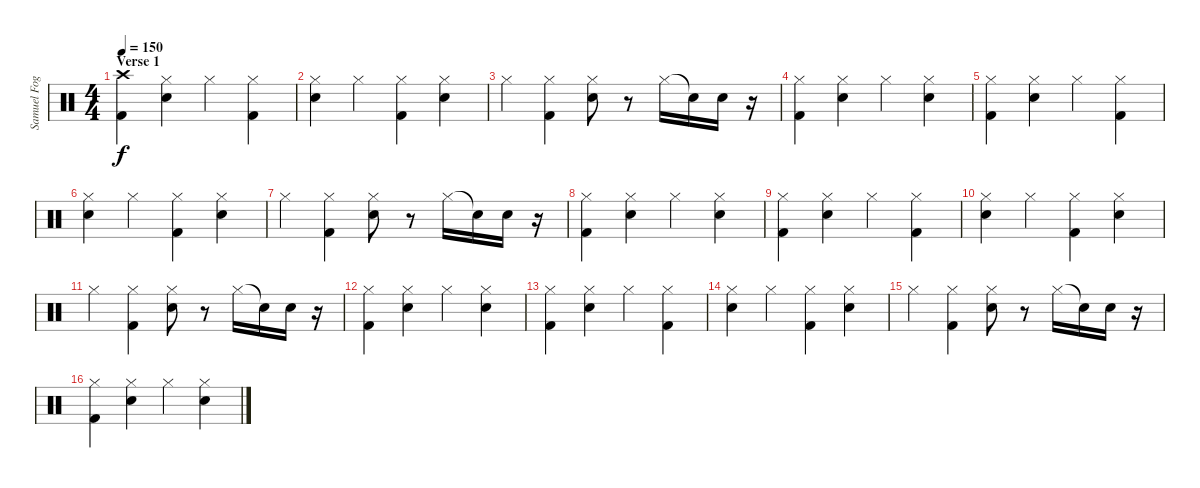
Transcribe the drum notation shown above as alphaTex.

\track ("Samuel Fogarino" "Samuel Fog") {instrument percussion}
\staff {score}
\articulation defaults
\ts (4 4)
\section ("" "Verse 1")
\tempo 150
\clef neutral
\ks c
("Crash high (hit)" "Kick (hit) 2").4{dy f} ("Electric Snare (hit)" "Hi-Hat (closed)").4 "Hi-Hat (closed)".4 ("Kick (hit) 2" "Hi-Hat (closed)").4 |
("Electric Snare (hit)" "Hi-Hat (closed)").4 "Hi-Hat (closed)".4 ("Kick (hit) 2" "Hi-Hat (closed)").4 ("Electric Snare (hit)" "Hi-Hat (closed)").4 |
"Hi-Hat (closed)".4 ("Kick (hit) 2" "Hi-Hat (closed)").4 ("Electric Snare (hit)" "Hi-Hat (closed)").8 r.8 "Hi-Hat (closed)".16 "Snare (hit)"{t}.16 "Electric Snare (hit)".16 r.16 |
("Hi-Hat (closed)" "Kick (hit) 2").4 ("Electric Snare (hit)" "Hi-Hat (closed)").4 "Hi-Hat (closed)".4 ("Electric Snare (hit)" "Hi-Hat (closed)").4 |
("Hi-Hat (closed)" "Kick (hit) 2").4 ("Electric Snare (hit)" "Hi-Hat (closed)").4 "Hi-Hat (closed)".4 ("Kick (hit) 2" "Hi-Hat (closed)").4 |
("Electric Snare (hit)" "Hi-Hat (closed)").4 "Hi-Hat (closed)".4 ("Kick (hit) 2" "Hi-Hat (closed)").4 ("Electric Snare (hit)" "Hi-Hat (closed)").4 |
"Hi-Hat (closed)".4 ("Kick (hit) 2" "Hi-Hat (closed)").4 ("Electric Snare (hit)" "Hi-Hat (closed)").8 r.8 "Hi-Hat (closed)".16 "Snare (hit)"{t}.16 "Electric Snare (hit)".16 r.16 |
("Hi-Hat (closed)" "Kick (hit) 2").4 ("Electric Snare (hit)" "Hi-Hat (closed)").4 "Hi-Hat (closed)".4 ("Electric Snare (hit)" "Hi-Hat (closed)").4 |
("Hi-Hat (closed)" "Kick (hit) 2").4 ("Electric Snare (hit)" "Hi-Hat (closed)").4 "Hi-Hat (closed)".4 ("Kick (hit) 2" "Hi-Hat (closed)").4 |
("Electric Snare (hit)" "Hi-Hat (closed)").4 "Hi-Hat (closed)".4 ("Kick (hit) 2" "Hi-Hat (closed)").4 ("Electric Snare (hit)" "Hi-Hat (closed)").4 |
"Hi-Hat (closed)".4 ("Kick (hit) 2" "Hi-Hat (closed)").4 ("Electric Snare (hit)" "Hi-Hat (closed)").8 r.8 "Hi-Hat (closed)".16 "Snare (hit)"{t}.16 "Electric Snare (hit)".16 r.16 |
("Hi-Hat (closed)" "Kick (hit) 2").4 ("Electric Snare (hit)" "Hi-Hat (closed)").4 "Hi-Hat (closed)".4 ("Electric Snare (hit)" "Hi-Hat (closed)").4 |
("Hi-Hat (closed)" "Kick (hit) 2").4 ("Electric Snare (hit)" "Hi-Hat (closed)").4 "Hi-Hat (closed)".4 ("Kick (hit) 2" "Hi-Hat (closed)").4 |
("Electric Snare (hit)" "Hi-Hat (closed)").4 "Hi-Hat (closed)".4 ("Kick (hit) 2" "Hi-Hat (closed)").4 ("Electric Snare (hit)" "Hi-Hat (closed)").4 |
"Hi-Hat (closed)".4 ("Kick (hit) 2" "Hi-Hat (closed)").4 ("Electric Snare (hit)" "Hi-Hat (closed)").8 r.8 "Hi-Hat (closed)".16 "Snare (hit)"{t}.16 "Electric Snare (hit)".16 r.16 |
("Hi-Hat (closed)" "Kick (hit) 2").4 ("Electric Snare (hit)" "Hi-Hat (closed)").4 "Hi-Hat (closed)".4 ("Electric Snare (hit)" "Hi-Hat (closed)").4
